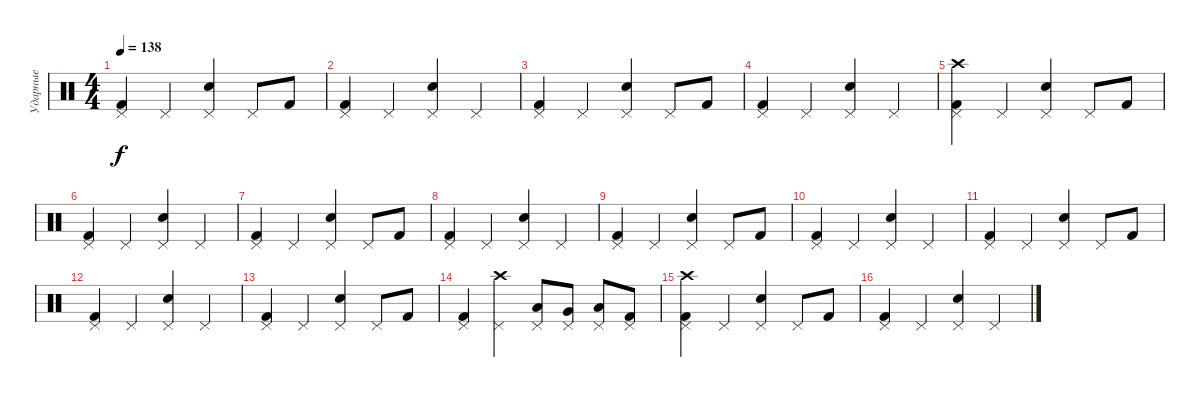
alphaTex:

\track ("Ударные" "Ударные") {instrument percussion}
\staff {score}
\articulation defaults
\ts (4 4)
\tempo 138
\clef neutral
\ks c
("Kick (hit) 2" "Pedal Hi-Hat (hit)").4{dy f} "Pedal Hi-Hat (hit)".4 ("Electric Snare (hit)" "Pedal Hi-Hat (hit)").4 "Pedal Hi-Hat (hit)".8 "Kick (hit) 2".8 |
("Kick (hit) 2" "Pedal Hi-Hat (hit)").4 "Pedal Hi-Hat (hit)".4 ("Electric Snare (hit)" "Pedal Hi-Hat (hit)").4 "Pedal Hi-Hat (hit)".4 |
("Kick (hit) 2" "Pedal Hi-Hat (hit)").4 "Pedal Hi-Hat (hit)".4 ("Electric Snare (hit)" "Pedal Hi-Hat (hit)").4 "Pedal Hi-Hat (hit)".8 "Kick (hit) 2".8 |
("Kick (hit) 2" "Pedal Hi-Hat (hit)").4 "Pedal Hi-Hat (hit)".4 ("Electric Snare (hit)" "Pedal Hi-Hat (hit)").4 "Pedal Hi-Hat (hit)".4 |
("Kick (hit) 2" "Pedal Hi-Hat (hit)" "Crash high (hit)").4 "Pedal Hi-Hat (hit)".4 ("Electric Snare (hit)" "Pedal Hi-Hat (hit)").4 "Pedal Hi-Hat (hit)".8 "Kick (hit) 2".8 |
("Kick (hit) 2" "Pedal Hi-Hat (hit)").4 "Pedal Hi-Hat (hit)".4 ("Electric Snare (hit)" "Pedal Hi-Hat (hit)").4 "Pedal Hi-Hat (hit)".4 |
("Kick (hit) 2" "Pedal Hi-Hat (hit)").4 "Pedal Hi-Hat (hit)".4 ("Electric Snare (hit)" "Pedal Hi-Hat (hit)").4 "Pedal Hi-Hat (hit)".8 "Kick (hit) 2".8 |
("Kick (hit) 2" "Pedal Hi-Hat (hit)").4 "Pedal Hi-Hat (hit)".4 ("Electric Snare (hit)" "Pedal Hi-Hat (hit)").4 "Pedal Hi-Hat (hit)".4 |
("Kick (hit) 2" "Pedal Hi-Hat (hit)").4 "Pedal Hi-Hat (hit)".4 ("Electric Snare (hit)" "Pedal Hi-Hat (hit)").4 "Pedal Hi-Hat (hit)".8 "Kick (hit) 2".8 |
("Kick (hit) 2" "Pedal Hi-Hat (hit)").4 "Pedal Hi-Hat (hit)".4 ("Electric Snare (hit)" "Pedal Hi-Hat (hit)").4 "Pedal Hi-Hat (hit)".4 |
("Kick (hit) 2" "Pedal Hi-Hat (hit)").4 "Pedal Hi-Hat (hit)".4 ("Electric Snare (hit)" "Pedal Hi-Hat (hit)").4 "Pedal Hi-Hat (hit)".8 "Kick (hit) 2".8 |
("Kick (hit) 2" "Pedal Hi-Hat (hit)").4 "Pedal Hi-Hat (hit)".4 ("Electric Snare (hit)" "Pedal Hi-Hat (hit)").4 "Pedal Hi-Hat (hit)".4 |
("Kick (hit) 2" "Pedal Hi-Hat (hit)").4 "Pedal Hi-Hat (hit)".4 ("Electric Snare (hit)" "Pedal Hi-Hat (hit)").4 "Pedal Hi-Hat (hit)".8 "Kick (hit) 2".8 |
("Kick (hit) 2" "Pedal Hi-Hat (hit)").4 ("Pedal Hi-Hat (hit)" "Crash high (hit)").4 ("Pedal Hi-Hat (hit)" "Low Floor Tom (hit)").8 ("Pedal Hi-Hat (hit)" "Very Low Tom (hit)").8 ("Pedal Hi-Hat (hit)" "Low Tom (hit)").8 ("Pedal Hi-Hat (hit)" "Kick (hit) 2").8 |
("Kick (hit) 2" "Pedal Hi-Hat (hit)" "Crash high (hit)").4 "Pedal Hi-Hat (hit)".4 ("Electric Snare (hit)" "Pedal Hi-Hat (hit)").4 "Pedal Hi-Hat (hit)".8 "Kick (hit) 2".8 |
("Kick (hit) 2" "Pedal Hi-Hat (hit)").4 "Pedal Hi-Hat (hit)".4 ("Electric Snare (hit)" "Pedal Hi-Hat (hit)").4 "Pedal Hi-Hat (hit)".4
